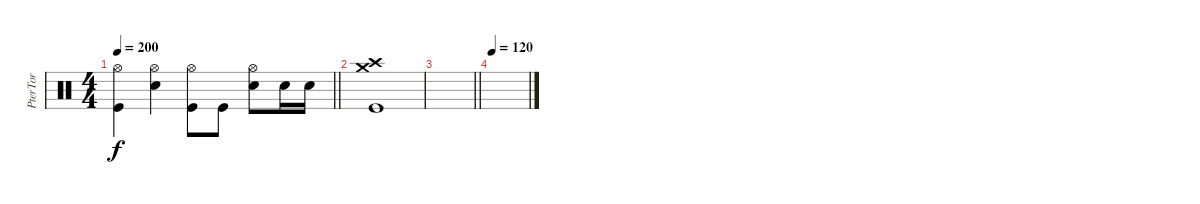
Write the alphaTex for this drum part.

\track ("PterTor" "PterTor") {instrument percussion}
\staff {score}
\articulation defaults
\ts (4 4)
\tempo 200
\clef neutral
\barLineRight lightlight
\ks c
("Hi-Hat (open)" "Kick (hit)").4{dy f} ("Hi-Hat (open)" "Snare (hit) 2").4 ("Hi-Hat (open)" "Kick (hit)").8 "Kick (hit)".8 ("Hi-Hat (open)" "Snare (hit) 2").8 "Snare (hit) 2".16 "Snare (hit) 2".16 |
("Crash high (hit)" "Crash medium (hit)" "Kick (hit)").1 |
\barLineRight lightlight
|
\tempo 120
